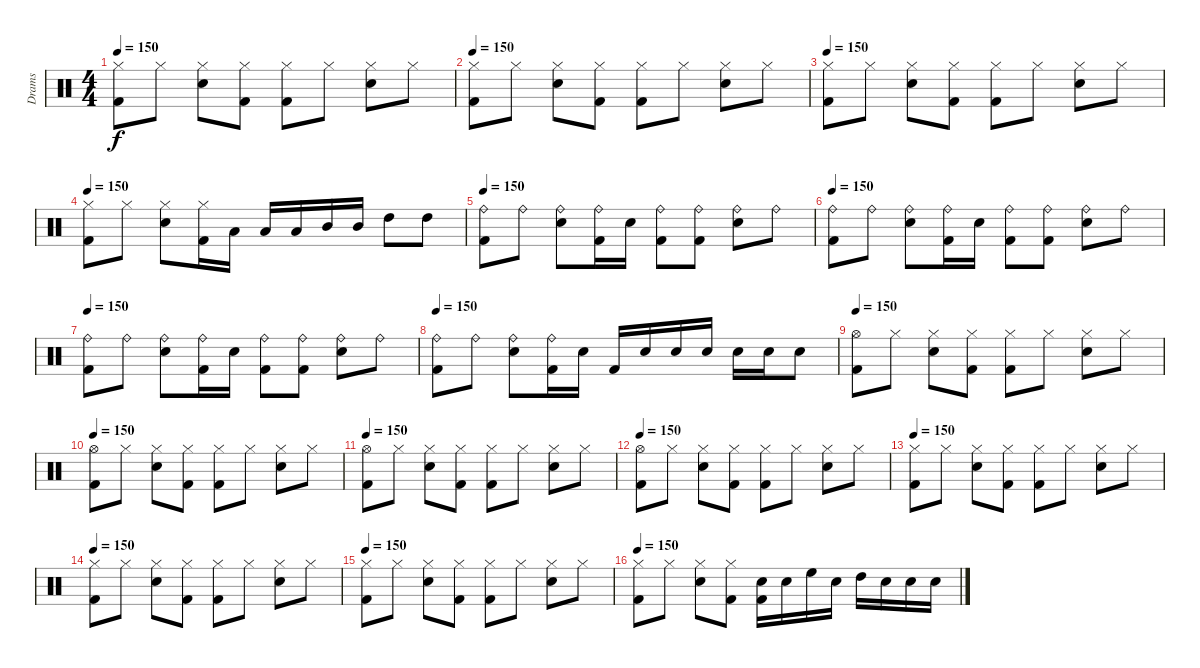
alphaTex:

\track ("Drams" "Drams") {instrument percussion}
\staff {score}
\articulation defaults
\ts (4 4)
\tempo 150
\clef neutral
\ks aminor
("Hi-Hat (closed)" "Kick (hit) 2").8{dy f} "Hi-Hat (closed)".8 ("Hi-Hat (closed)" "Electric Snare (hit)").8 ("Hi-Hat (closed)" "Kick (hit) 2").8 ("Kick (hit) 2" "Hi-Hat (closed)").8 "Hi-Hat (closed)".8 ("Hi-Hat (closed)" "Electric Snare (hit)").8 "Hi-Hat (closed)".8 |
\tempo 150
("Hi-Hat (closed)" "Kick (hit) 2").8 "Hi-Hat (closed)".8 ("Hi-Hat (closed)" "Electric Snare (hit)").8 ("Hi-Hat (closed)" "Kick (hit) 2").8 ("Kick (hit) 2" "Hi-Hat (closed)").8 "Hi-Hat (closed)".8 ("Hi-Hat (closed)" "Electric Snare (hit)").8 "Hi-Hat (closed)".8 |
\tempo 150
("Hi-Hat (closed)" "Kick (hit) 2").8 "Hi-Hat (closed)".8 ("Hi-Hat (closed)" "Electric Snare (hit)").8 ("Hi-Hat (closed)" "Kick (hit) 2").8 ("Kick (hit) 2" "Hi-Hat (closed)").8 "Hi-Hat (closed)".8 ("Hi-Hat (closed)" "Electric Snare (hit)").8 "Hi-Hat (closed)".8 |
\tempo 150
("Hi-Hat (closed)" "Kick (hit) 2").8 "Hi-Hat (closed)".8 ("Hi-Hat (closed)" "Electric Snare (hit)").8 ("Hi-Hat (closed)" "Kick (hit) 2").16 "Low Tom (hit)".16 "Low Tom (hit)".16 "Low Tom (hit)".16 "Mid Tom (hit)".16 "Mid Tom (hit)".16 "High Tom (hit)".8 "High Tom (hit)".8 |
\tempo 150
("Kick (hit) 2" "Ride (bell)").8 "Ride (bell)".8 ("Electric Snare (hit)" "Ride (bell)").8 ("Kick (hit) 2" "Ride (bell)").16 "Electric Snare (hit)".16 ("Kick (hit) 2" "Ride (bell)").8 ("Kick (hit) 2" "Ride (bell)").8 ("Electric Snare (hit)" "Ride (bell)").8 "Ride (bell)".8 |
\tempo 150
("Kick (hit) 2" "Ride (bell)").8 "Ride (bell)".8 ("Electric Snare (hit)" "Ride (bell)").8 ("Kick (hit) 2" "Ride (bell)").16 "Electric Snare (hit)".16 ("Kick (hit) 2" "Ride (bell)").8 ("Kick (hit) 2" "Ride (bell)").8 ("Electric Snare (hit)" "Ride (bell)").8 "Ride (bell)".8 |
\tempo 150
("Kick (hit) 2" "Ride (bell)").8 "Ride (bell)".8 ("Electric Snare (hit)" "Ride (bell)").8 ("Kick (hit) 2" "Ride (bell)").16 "Electric Snare (hit)".16 ("Kick (hit) 2" "Ride (bell)").8 ("Kick (hit) 2" "Ride (bell)").8 ("Electric Snare (hit)" "Ride (bell)").8 "Ride (bell)".8 |
\tempo 150
("Kick (hit) 2" "Ride (bell)").8 "Ride (bell)".8 ("Electric Snare (hit)" "Ride (bell)").8 ("Kick (hit) 2" "Ride (bell)").16 "Electric Snare (hit)".16 "Kick (hit) 2".16 "Electric Snare (hit)".16 "Electric Snare (hit)".16 "Electric Snare (hit)".16 "Electric Snare (hit)".16 "Electric Snare (hit)".16 "Electric Snare (hit)".8 |
\tempo 150
("Kick (hit) 2" "Hi-Hat (open)").8 "Hi-Hat (closed)".8 ("Hi-Hat (closed)" "Electric Snare (hit)").8 ("Hi-Hat (closed)" "Kick (hit) 2").8 ("Kick (hit) 2" "Hi-Hat (closed)").8 "Hi-Hat (closed)".8 ("Hi-Hat (closed)" "Electric Snare (hit)").8 "Hi-Hat (closed)".8 |
\tempo 150
("Hi-Hat (open)" "Kick (hit) 2").8 "Hi-Hat (closed)".8 ("Hi-Hat (closed)" "Electric Snare (hit)").8 ("Hi-Hat (closed)" "Kick (hit) 2").8 ("Kick (hit) 2" "Hi-Hat (closed)").8 "Hi-Hat (closed)".8 ("Hi-Hat (closed)" "Electric Snare (hit)").8 "Hi-Hat (closed)".8 |
\tempo 150
("Kick (hit) 2" "Hi-Hat (open)").8 "Hi-Hat (closed)".8 ("Hi-Hat (closed)" "Electric Snare (hit)").8 ("Hi-Hat (closed)" "Kick (hit) 2").8 ("Kick (hit) 2" "Hi-Hat (closed)").8 "Hi-Hat (closed)".8 ("Hi-Hat (closed)" "Electric Snare (hit)").8 "Hi-Hat (closed)".8 |
\tempo 150
("Hi-Hat (open)" "Kick (hit) 2").8 "Hi-Hat (closed)".8 ("Hi-Hat (closed)" "Electric Snare (hit)").8 ("Hi-Hat (closed)" "Kick (hit) 2").8 ("Kick (hit) 2" "Hi-Hat (closed)").8 "Hi-Hat (closed)".8 ("Hi-Hat (closed)" "Electric Snare (hit)").8 "Hi-Hat (closed)".8 |
\tempo 150
("Hi-Hat (closed)" "Kick (hit) 2").8 "Hi-Hat (closed)".8 ("Hi-Hat (closed)" "Electric Snare (hit)").8 ("Hi-Hat (closed)" "Kick (hit) 2").8 ("Kick (hit) 2" "Hi-Hat (closed)").8 "Hi-Hat (closed)".8 ("Hi-Hat (closed)" "Electric Snare (hit)").8 "Hi-Hat (closed)".8 |
\tempo 150
("Hi-Hat (closed)" "Kick (hit) 2").8 "Hi-Hat (closed)".8 ("Hi-Hat (closed)" "Electric Snare (hit)").8 ("Hi-Hat (closed)" "Kick (hit) 2").8 ("Kick (hit) 2" "Hi-Hat (closed)").8 "Hi-Hat (closed)".8 ("Hi-Hat (closed)" "Electric Snare (hit)").8 "Hi-Hat (closed)".8 |
\tempo 150
("Hi-Hat (closed)" "Kick (hit) 2").8 "Hi-Hat (closed)".8 ("Hi-Hat (closed)" "Electric Snare (hit)").8 ("Hi-Hat (closed)" "Kick (hit) 2").8 ("Kick (hit) 2" "Hi-Hat (closed)").8 "Hi-Hat (closed)".8 ("Hi-Hat (closed)" "Electric Snare (hit)").8 "Hi-Hat (closed)".8 |
\tempo 150
("Hi-Hat (closed)" "Kick (hit) 2").8 "Hi-Hat (closed)".8 ("Hi-Hat (closed)" "Electric Snare (hit)").8 ("Hi-Hat (closed)" "Kick (hit) 2").8 ("Electric Snare (hit)" "Kick (hit) 2").16 "Electric Snare (hit)".16 "High Floor Tom (hit)".16 "Electric Snare (hit)".16 "High Tom (hit)".16 "Electric Snare (hit)".16 "Electric Snare (hit)".16 "Electric Snare (hit)".16
